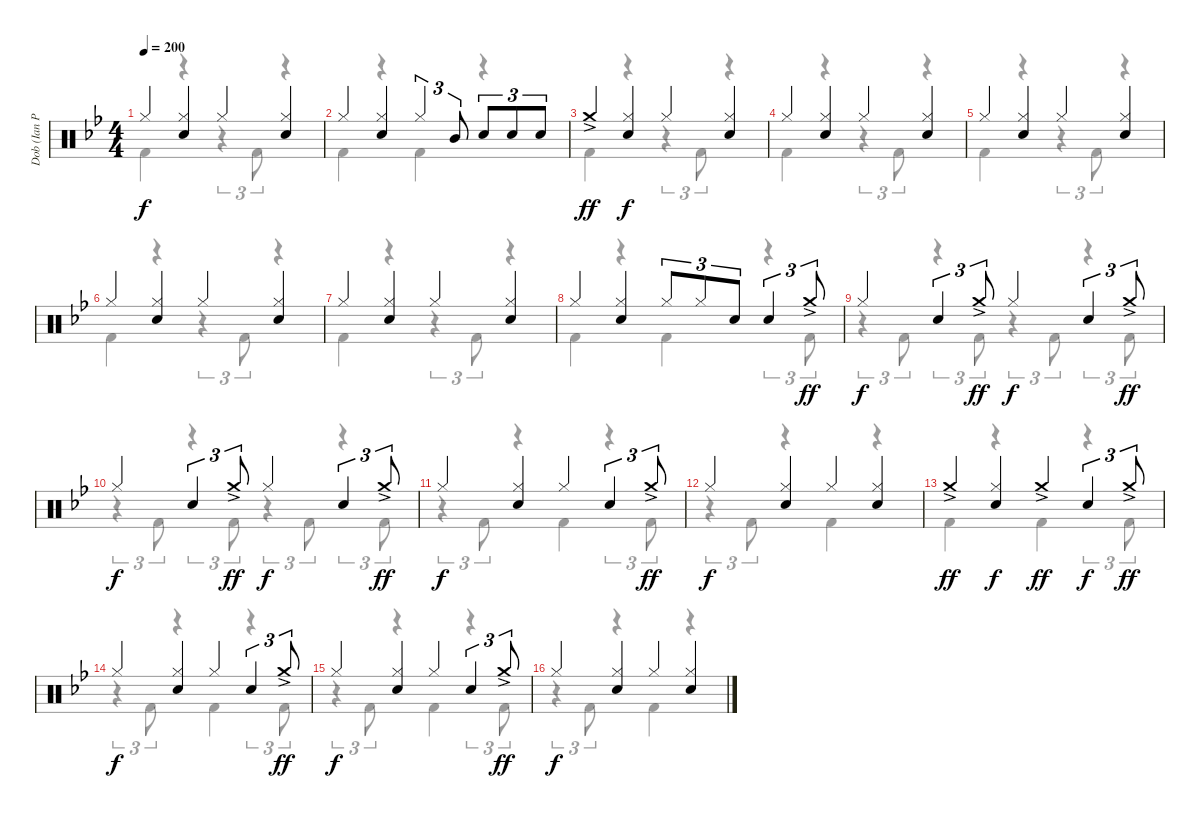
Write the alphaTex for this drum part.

\track ("Dob (Ian Paice)" "Dob (Ian P") {instrument percussion}
\staff {score}
\articulation defaults
\voice
\ts (4 4)
\tempo 200
\clef neutral
\ks bb "Hi-Hat (closed)".4{dy f}
("Hi-Hat (closed)" "Electric Snare (hit)").4 "Hi-Hat (closed)".4 ("Hi-Hat (closed)" "Electric Snare (hit)").4 |
"Hi-Hat (closed)".4 ("Hi-Hat (closed)" "Electric Snare (hit)").4 "Hi-Hat (closed)".4{tu (3 2)} "Mid Tom (hit)".8{tu (3 2)} "Electric Snare (hit)".8{tu (3 2)} "Electric Snare (hit)".8{tu (3 2)} "Electric Snare (hit)".8{tu (3 2)} |
"Crash medium (hit)"{ac}.4{dy ff} ("Hi-Hat (closed)" "Electric Snare (hit)").4{dy f} "Hi-Hat (closed)".4 ("Hi-Hat (closed)" "Electric Snare (hit)").4 |
"Hi-Hat (closed)".4 ("Hi-Hat (closed)" "Electric Snare (hit)").4 "Hi-Hat (closed)".4 ("Hi-Hat (closed)" "Electric Snare (hit)").4 |
"Hi-Hat (closed)".4 ("Hi-Hat (closed)" "Electric Snare (hit)").4 "Hi-Hat (closed)".4 ("Hi-Hat (closed)" "Electric Snare (hit)").4 |
"Hi-Hat (closed)".4 ("Hi-Hat (closed)" "Electric Snare (hit)").4 "Hi-Hat (closed)".4 ("Hi-Hat (closed)" "Electric Snare (hit)").4 |
"Hi-Hat (closed)".4 ("Hi-Hat (closed)" "Electric Snare (hit)").4 "Hi-Hat (closed)".4 ("Hi-Hat (closed)" "Electric Snare (hit)").4 |
"Hi-Hat (closed)".4 ("Hi-Hat (closed)" "Electric Snare (hit)").4 "Hi-Hat (closed)".8{tu (3 2)} "Hi-Hat (closed)".8{tu (3 2)} "Electric Snare (hit)".8{tu (3 2)} "Electric Snare (hit)".4{tu (3 2)} "Crash medium (hit)"{ac}.8{tu (3 2) dy ff} |
"Hi-Hat (closed)".4{dy f} "Electric Snare (hit)".4{tu (3 2)} "Crash medium (hit)"{ac}.8{tu (3 2) dy ff} "Hi-Hat (closed)".4{dy f} "Electric Snare (hit)".4{tu (3 2)} "Crash medium (hit)"{ac}.8{tu (3 2) dy ff} |
"Hi-Hat (closed)".4{dy f} "Electric Snare (hit)".4{tu (3 2)} "Crash medium (hit)"{ac}.8{tu (3 2) dy ff} "Hi-Hat (closed)".4{dy f} "Electric Snare (hit)".4{tu (3 2)} "Crash medium (hit)"{ac}.8{tu (3 2) dy ff} |
"Hi-Hat (closed)".4{dy f} ("Hi-Hat (closed)" "Electric Snare (hit)").4 "Hi-Hat (closed)".4 "Electric Snare (hit)".4{tu (3 2)} "Crash medium (hit)"{ac}.8{tu (3 2) dy ff} |
"Hi-Hat (closed)".4{dy f} ("Hi-Hat (closed)" "Electric Snare (hit)").4 "Hi-Hat (closed)".4 ("Hi-Hat (closed)" "Electric Snare (hit)").4 |
"Crash medium (hit)"{ac}.4{dy ff} ("Hi-Hat (closed)" "Electric Snare (hit)").4{dy f} "Crash medium (hit)"{ac}.4{dy ff} "Electric Snare (hit)".4{tu (3 2) dy f} "Crash medium (hit)"{ac}.8{tu (3 2) dy ff} |
"Hi-Hat (closed)".4{dy f} ("Hi-Hat (closed)" "Electric Snare (hit)").4 "Hi-Hat (closed)".4 "Electric Snare (hit)".4{tu (3 2)} "Crash medium (hit)"{ac}.8{tu (3 2) dy ff} |
"Hi-Hat (closed)".4{dy f} ("Hi-Hat (closed)" "Electric Snare (hit)").4 "Hi-Hat (closed)".4 "Electric Snare (hit)".4{tu (3 2)} "Crash medium (hit)"{ac}.8{tu (3 2) dy ff} |
"Hi-Hat (closed)".4{dy f} ("Hi-Hat (closed)" "Electric Snare (hit)").4 "Hi-Hat (closed)".4 ("Hi-Hat (closed)" "Electric Snare (hit)").4
\voice
\clef neutral
\ottava regular
\simile none
\ks bb "Kick (hit) 2".4{dy f}
r.4 r.4{tu (3 2)} "Kick (hit) 2".8{tu (3 2)} r.4 |
"Kick (hit) 2".4 r.4 "Kick (hit) 2".4 r.4 |
"Kick (hit) 2".4 r.4 r.4{tu (3 2)} "Kick (hit) 2".8{tu (3 2)} r.4 |
"Kick (hit) 2".4 r.4 r.4{tu (3 2)} "Kick (hit) 2".8{tu (3 2)} r.4 |
"Kick (hit) 2".4 r.4 r.4{tu (3 2)} "Kick (hit) 2".8{tu (3 2)} r.4 |
"Kick (hit) 2".4 r.4 r.4{tu (3 2)} "Kick (hit) 2".8{tu (3 2)} r.4 |
"Kick (hit) 2".4 r.4 r.4{tu (3 2)} "Kick (hit) 2".8{tu (3 2)} r.4 |
"Kick (hit) 2".4 r.4 "Kick (hit) 2".4 r.4{tu (3 2)} "Kick (hit) 2".8{tu (3 2)} |
r.4{tu (3 2)} "Kick (hit) 2".8{tu (3 2)} r.4{tu (3 2)} "Kick (hit) 2".8{tu (3 2)} r.4{tu (3 2)} "Kick (hit) 2".8{tu (3 2)} r.4{tu (3 2)} "Kick (hit) 2".8{tu (3 2)} |
r.4{tu (3 2)} "Kick (hit) 2".8{tu (3 2)} r.4{tu (3 2)} "Kick (hit) 2".8{tu (3 2)} r.4{tu (3 2)} "Kick (hit) 2".8{tu (3 2)} r.4{tu (3 2)} "Kick (hit) 2".8{tu (3 2)} |
r.4{tu (3 2)} "Kick (hit) 2".8{tu (3 2)} r.4 "Kick (hit) 2".4 r.4{tu (3 2)} "Kick (hit) 2".8{tu (3 2)} |
r.4{tu (3 2)} "Kick (hit) 2".8{tu (3 2)} r.4 "Kick (hit) 2".4 r.4 |
"Kick (hit) 2".4 r.4 "Kick (hit) 2".4 r.4{tu (3 2)} "Kick (hit) 2".8{tu (3 2)} |
r.4{tu (3 2)} "Kick (hit) 2".8{tu (3 2)} r.4 "Kick (hit) 2".4 r.4{tu (3 2)} "Kick (hit) 2".8{tu (3 2)} |
r.4{tu (3 2)} "Kick (hit) 2".8{tu (3 2)} r.4 "Kick (hit) 2".4 r.4{tu (3 2)} "Kick (hit) 2".8{tu (3 2)} |
r.4{tu (3 2)} "Kick (hit) 2".8{tu (3 2)} r.4 "Kick (hit) 2".4 r.4
